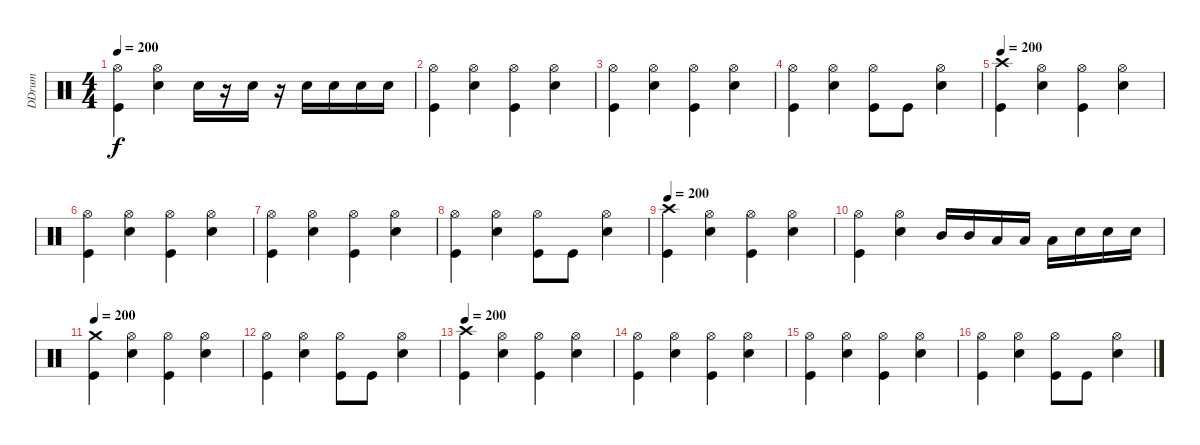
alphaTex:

\track ("DDrum" "DDrum") {instrument percussion}
\staff {score}
\articulation defaults
\ts (4 4)
\tempo 200
\clef neutral
\ks c
("Hi-Hat (open)" "Kick (hit)").4{dy f} ("Hi-Hat (open)" "Electric Snare (hit)").4 "Electric Snare (hit)".16 r.16 "Electric Snare (hit)".16 r.16 "Electric Snare (hit)".16 "Electric Snare (hit)".16 "Electric Snare (hit)".16 "Electric Snare (hit)".16 |
("Hi-Hat (open)" "Kick (hit)").4 ("Hi-Hat (open)" "Electric Snare (hit)").4 ("Hi-Hat (open)" "Kick (hit)").4 ("Hi-Hat (open)" "Electric Snare (hit)").4 |
("Hi-Hat (open)" "Kick (hit)").4 ("Hi-Hat (open)" "Electric Snare (hit)").4 ("Hi-Hat (open)" "Kick (hit)").4 ("Hi-Hat (open)" "Electric Snare (hit)").4 |
("Hi-Hat (open)" "Kick (hit)").4 ("Hi-Hat (open)" "Electric Snare (hit)").4 ("Hi-Hat (open)" "Kick (hit)").8 "Kick (hit)".8 ("Hi-Hat (open)" "Electric Snare (hit)").4 |
\tempo 200
("Crash high (hit)" "Kick (hit)").4 ("Hi-Hat (open)" "Electric Snare (hit)").4 ("Hi-Hat (open)" "Kick (hit)").4 ("Hi-Hat (open)" "Electric Snare (hit)").4 |
("Hi-Hat (open)" "Kick (hit)").4 ("Hi-Hat (open)" "Electric Snare (hit)").4 ("Hi-Hat (open)" "Kick (hit)").4 ("Hi-Hat (open)" "Electric Snare (hit)").4 |
("Hi-Hat (open)" "Kick (hit)").4 ("Hi-Hat (open)" "Electric Snare (hit)").4 ("Hi-Hat (open)" "Kick (hit)").4 ("Hi-Hat (open)" "Electric Snare (hit)").4 |
("Hi-Hat (open)" "Kick (hit)").4 ("Hi-Hat (open)" "Electric Snare (hit)").4 ("Hi-Hat (open)" "Kick (hit)").8 "Kick (hit)".8 ("Hi-Hat (open)" "Electric Snare (hit)").4 |
\tempo 200
("Crash high (hit)" "Kick (hit)").4 ("Hi-Hat (open)" "Electric Snare (hit)").4 ("Hi-Hat (open)" "Kick (hit)").4 ("Hi-Hat (open)" "Electric Snare (hit)").4 |
("Hi-Hat (open)" "Kick (hit)").4 ("Hi-Hat (open)" "Electric Snare (hit)").4 "Mid Tom (hit)".16 "Mid Tom (hit)".16 "Low Tom (hit)".16 "Low Tom (hit)".16 "Low Tom (hit)".16 "Electric Snare (hit)".16 "Electric Snare (hit)".16 "Electric Snare (hit)".16 |
\tempo 200
("Crash medium (hit)" "Kick (hit)").4 ("Hi-Hat (open)" "Electric Snare (hit)").4 ("Hi-Hat (open)" "Kick (hit)").4 ("Hi-Hat (open)" "Electric Snare (hit)").4 |
("Hi-Hat (open)" "Kick (hit)").4 ("Hi-Hat (open)" "Electric Snare (hit)").4 ("Hi-Hat (open)" "Kick (hit)").8 "Kick (hit)".8 ("Hi-Hat (open)" "Electric Snare (hit)").4 |
\tempo 200
("Crash high (hit)" "Kick (hit)").4 ("Hi-Hat (open)" "Electric Snare (hit)").4 ("Hi-Hat (open)" "Kick (hit)").4 ("Hi-Hat (open)" "Electric Snare (hit)").4 |
("Hi-Hat (open)" "Kick (hit)").4 ("Hi-Hat (open)" "Electric Snare (hit)").4 ("Hi-Hat (open)" "Kick (hit)").4 ("Hi-Hat (open)" "Electric Snare (hit)").4 |
("Hi-Hat (open)" "Kick (hit)").4 ("Hi-Hat (open)" "Electric Snare (hit)").4 ("Hi-Hat (open)" "Kick (hit)").4 ("Hi-Hat (open)" "Electric Snare (hit)").4 |
("Hi-Hat (open)" "Kick (hit)").4 ("Hi-Hat (open)" "Electric Snare (hit)").4 ("Hi-Hat (open)" "Kick (hit)").8 "Kick (hit)".8 ("Hi-Hat (open)" "Electric Snare (hit)").4
